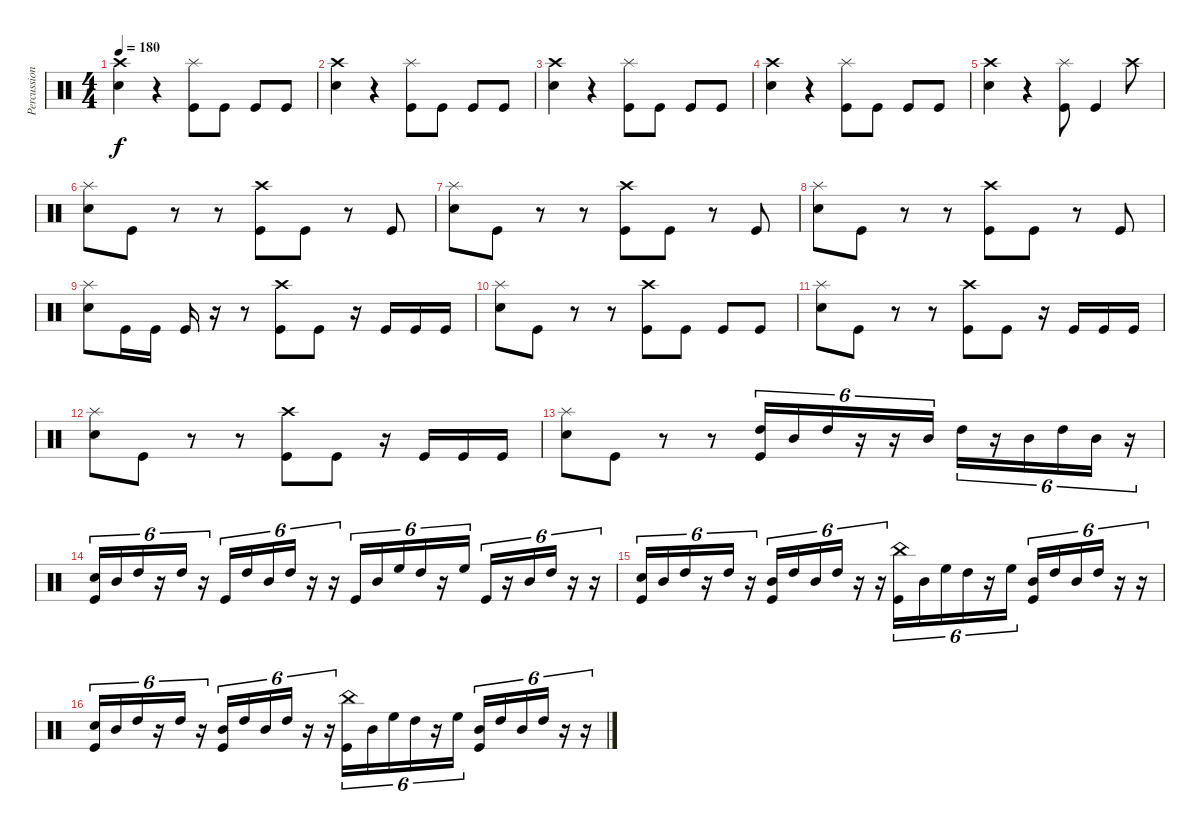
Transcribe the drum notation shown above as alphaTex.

\track ("Percussion" "Percussion") {instrument percussion}
\staff {score}
\articulation defaults
\ts (4 4)
\tempo 180
\clef neutral
\ks c
("Crash high (hit)" "Snare (hit) 2").4{dy f} r.4 ("Splash (hit)" "Kick (hit)").8 "Kick (hit)".8 "Kick (hit)".8 "Kick (hit)".8 |
("Crash high (hit)" "Snare (hit) 2").4 r.4 ("Splash (hit)" "Kick (hit)").8 "Kick (hit)".8 "Kick (hit)".8 "Kick (hit)".8 |
("Crash high (hit)" "Snare (hit) 2").4 r.4 ("Splash (hit)" "Kick (hit)").8 "Kick (hit)".8 "Kick (hit)".8 "Kick (hit)".8 |
("Crash high (hit)" "Snare (hit) 2").4 r.4 ("Splash (hit)" "Kick (hit)").8 "Kick (hit)".8 "Kick (hit)".8 "Kick (hit)".8 |
("Crash high (hit)" "Snare (hit) 2").4 r.4 ("Splash (hit)" "Kick (hit)").8 "Kick (hit)".4 "Crash high (hit)".8 |
("Splash (hit)" "Snare (hit) 2").8 "Kick (hit)".8 r.8 r.8 ("Crash high (hit)" "Kick (hit)").8 "Kick (hit)".8 r.8 "Kick (hit)".8 |
("Splash (hit)" "Snare (hit) 2").8 "Kick (hit)".8 r.8 r.8 ("Crash high (hit)" "Kick (hit)").8 "Kick (hit)".8 r.8 "Kick (hit)".8 |
("Splash (hit)" "Snare (hit) 2").8 "Kick (hit)".8 r.8 r.8 ("Crash high (hit)" "Kick (hit)").8 "Kick (hit)".8 r.8 "Kick (hit)".8 |
("Splash (hit)" "Snare (hit) 2").8 "Kick (hit)".16 "Kick (hit)".16 "Kick (hit)".16 r.16 r.8 ("Crash high (hit)" "Kick (hit)").8 "Kick (hit)".8 r.16 "Kick (hit)".16 "Kick (hit)".16 "Kick (hit)".16 |
("Splash (hit)" "Snare (hit) 2").8 "Kick (hit)".8 r.8 r.8 ("Crash high (hit)" "Kick (hit)").8 "Kick (hit)".8 "Kick (hit)".8 "Kick (hit)".8 |
("Splash (hit)" "Snare (hit) 2").8 "Kick (hit)".8 r.8 r.8 ("Crash high (hit)" "Kick (hit)").8 "Kick (hit)".8 r.16 "Kick (hit)".16 "Kick (hit)".16 "Kick (hit)".16 |
("Splash (hit)" "Snare (hit) 2").8 "Kick (hit)".8 r.8 r.8 ("Crash high (hit)" "Kick (hit)").8 "Kick (hit)".8 r.16 "Kick (hit)".16 "Kick (hit)".16 "Kick (hit)".16 |
("Splash (hit)" "Snare (hit) 2").8 "Kick (hit)".8 r.8 r.8 ("High Tom (hit)" "Kick (hit)").16{tu (6 4) volume 14} "Mid Tom (hit)".16{tu (6 4)} "High Tom (hit)".16{tu (6 4)} r.16{tu (6 4)} r.16{tu (6 4)} "Mid Tom (hit)".16{tu (6 4)} "High Tom (hit)".16{tu (6 4)} r.16{tu (6 4)} "Mid Tom (hit)".16{tu (6 4)} "High Tom (hit)".16{tu (6 4)} "Mid Tom (hit)".16{tu (6 4)} r.16{tu (6 4)} |
("Snare (hit) 2" "Kick (hit)").16{tu (6 4)} "Mid Tom (hit)".16{tu (6 4)} "High Tom (hit)".16{tu (6 4)} r.16{tu (6 4)} "High Tom (hit)".16{tu (6 4)} r.16{tu (6 4)} "Kick (hit)".16{tu (6 4)} "High Tom (hit)".16{tu (6 4)} "Mid Tom (hit)".16{tu (6 4)} "High Tom (hit)".16{tu (6 4)} r.16{tu (6 4)} r.16{tu (6 4)} "Kick (hit)".16{tu (6 4)} "Mid Tom (hit)".16{tu (6 4)} "High Floor Tom (hit)".16{tu (6 4)} "High Tom (hit)".16{tu (6 4)} r.16{tu (6 4)} "High Floor Tom (hit)".16{tu (6 4)} "Kick (hit)".16{tu (6 4)} r.16{tu (6 4)} "Mid Tom (hit)".16{tu (6 4)} "High Tom (hit)".16{tu (6 4)} r.16{tu (6 4)} r.16{tu (6 4)} |
("Snare (hit) 2" "Kick (hit)").16{tu (6 4)} "Mid Tom (hit)".16{tu (6 4)} "High Tom (hit)".16{tu (6 4)} r.16{tu (6 4)} "High Tom (hit)".16{tu (6 4)} r.16{tu (6 4)} ("Mid Tom (hit)" "Kick (hit)").16{tu (6 4)} "High Tom (hit)".16{tu (6 4)} "Mid Tom (hit)".16{tu (6 4)} "High Tom (hit)".16{tu (6 4)} r.16{tu (6 4)} r.16{tu (6 4)} ("China (hit)" "Kick (hit)").16{tu (6 4)} "Mid Tom (hit)".16{tu (6 4)} "High Floor Tom (hit)".16{tu (6 4)} "High Tom (hit)".16{tu (6 4)} r.16{tu (6 4)} "High Floor Tom (hit)".16{tu (6 4)} ("Mid Tom (hit)" "Kick (hit)").16{tu (6 4)} "High Tom (hit)".16{tu (6 4)} "Mid Tom (hit)".16{tu (6 4)} "High Tom (hit)".16{tu (6 4)} r.16{tu (6 4)} r.16{tu (6 4)} |
("Snare (hit) 2" "Kick (hit)").16{tu (6 4)} "Mid Tom (hit)".16{tu (6 4)} "High Tom (hit)".16{tu (6 4)} r.16{tu (6 4)} "High Tom (hit)".16{tu (6 4)} r.16{tu (6 4)} ("Mid Tom (hit)" "Kick (hit)").16{tu (6 4)} "High Tom (hit)".16{tu (6 4)} "Mid Tom (hit)".16{tu (6 4)} "High Tom (hit)".16{tu (6 4)} r.16{tu (6 4)} r.16{tu (6 4)} ("China (hit)" "Kick (hit)").16{tu (6 4)} "Mid Tom (hit)".16{tu (6 4)} "High Floor Tom (hit)".16{tu (6 4)} "High Tom (hit)".16{tu (6 4)} r.16{tu (6 4)} "High Floor Tom (hit)".16{tu (6 4)} ("Mid Tom (hit)" "Kick (hit)").16{tu (6 4)} "High Tom (hit)".16{tu (6 4)} "Mid Tom (hit)".16{tu (6 4)} "High Tom (hit)".16{tu (6 4)} r.16{tu (6 4)} r.16{tu (6 4)}
